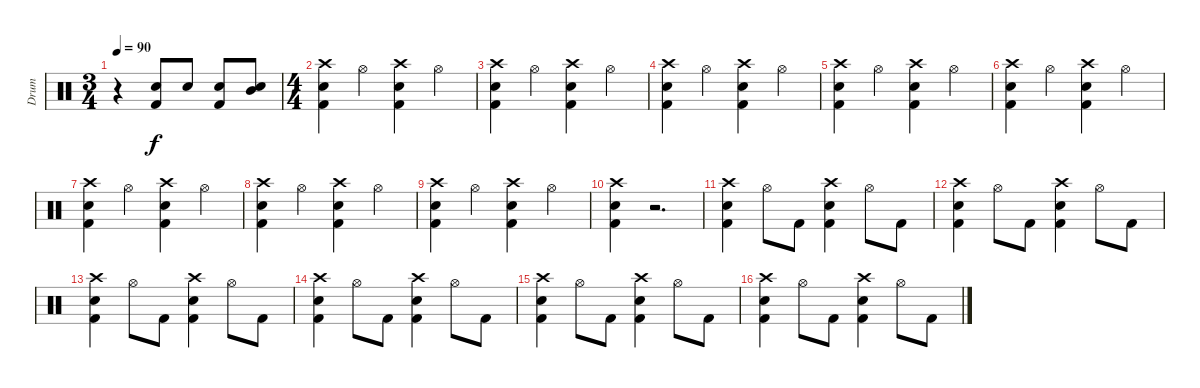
\track ("Drum" "Drum") {instrument percussion}
\staff {score}
\articulation defaults
\ts (3 4)
\tempo 90
\clef neutral
\ks c
r.4{dy f} ("Kick (hit) 2" "Snare (hit) 2").8 "Snare (hit) 2".8 ("Kick (hit) 2" "Snare (hit) 2").8 ("Snare (hit) 2" "Mid Tom (hit)").8 |
\ts (4 4)
("Kick (hit) 2" "Snare (hit) 2" "Crash high (hit)").4 "Hi-Hat (open)".4 ("Kick (hit) 2" "Snare (hit) 2" "Crash high (hit)").4 "Hi-Hat (open)".4 |
("Kick (hit) 2" "Snare (hit) 2" "Crash high (hit)").4 "Hi-Hat (open)".4 ("Kick (hit) 2" "Snare (hit) 2" "Crash high (hit)").4 "Hi-Hat (open)".4 |
("Kick (hit) 2" "Snare (hit) 2" "Crash high (hit)").4 "Hi-Hat (open)".4 ("Kick (hit) 2" "Snare (hit) 2" "Crash high (hit)").4 "Hi-Hat (open)".4 |
("Kick (hit) 2" "Snare (hit) 2" "Crash high (hit)").4 "Hi-Hat (open)".4 ("Kick (hit) 2" "Snare (hit) 2" "Crash high (hit)").4 "Hi-Hat (open)".4 |
("Kick (hit) 2" "Snare (hit) 2" "Crash high (hit)").4 "Hi-Hat (open)".4 ("Kick (hit) 2" "Snare (hit) 2" "Crash high (hit)").4 "Hi-Hat (open)".4 |
("Kick (hit) 2" "Snare (hit) 2" "Crash high (hit)").4 "Hi-Hat (open)".4 ("Kick (hit) 2" "Snare (hit) 2" "Crash high (hit)").4 "Hi-Hat (open)".4 |
("Kick (hit) 2" "Snare (hit) 2" "Crash high (hit)").4 "Hi-Hat (open)".4 ("Kick (hit) 2" "Snare (hit) 2" "Crash high (hit)").4 "Hi-Hat (open)".4 |
("Kick (hit) 2" "Snare (hit) 2" "Crash high (hit)").4 "Hi-Hat (open)".4 ("Kick (hit) 2" "Snare (hit) 2" "Crash high (hit)").4 "Hi-Hat (open)".4 |
("Kick (hit) 2" "Snare (hit) 2" "Crash high (hit)").4 r.2{d} |
("Kick (hit) 2" "Snare (hit) 2" "Crash high (hit)").4 "Hi-Hat (open)".8 "Kick (hit) 2".8 ("Kick (hit) 2" "Snare (hit) 2" "Crash high (hit)").4 "Hi-Hat (open)".8 "Kick (hit) 2".8 |
("Kick (hit) 2" "Snare (hit) 2" "Crash high (hit)").4 "Hi-Hat (open)".8 "Kick (hit) 2".8 ("Kick (hit) 2" "Snare (hit) 2" "Crash high (hit)").4 "Hi-Hat (open)".8 "Kick (hit) 2".8 |
("Kick (hit) 2" "Snare (hit) 2" "Crash high (hit)").4 "Hi-Hat (open)".8 "Kick (hit) 2".8 ("Kick (hit) 2" "Snare (hit) 2" "Crash high (hit)").4 "Hi-Hat (open)".8 "Kick (hit) 2".8 |
("Kick (hit) 2" "Snare (hit) 2" "Crash high (hit)").4 "Hi-Hat (open)".8 "Kick (hit) 2".8 ("Kick (hit) 2" "Snare (hit) 2" "Crash high (hit)").4 "Hi-Hat (open)".8 "Kick (hit) 2".8 |
("Kick (hit) 2" "Snare (hit) 2" "Crash high (hit)").4 "Hi-Hat (open)".8 "Kick (hit) 2".8 ("Kick (hit) 2" "Snare (hit) 2" "Crash high (hit)").4 "Hi-Hat (open)".8 "Kick (hit) 2".8 |
("Kick (hit) 2" "Snare (hit) 2" "Crash high (hit)").4 "Hi-Hat (open)".8 "Kick (hit) 2".8 ("Kick (hit) 2" "Snare (hit) 2" "Crash high (hit)").4 "Hi-Hat (open)".8 "Kick (hit) 2".8
